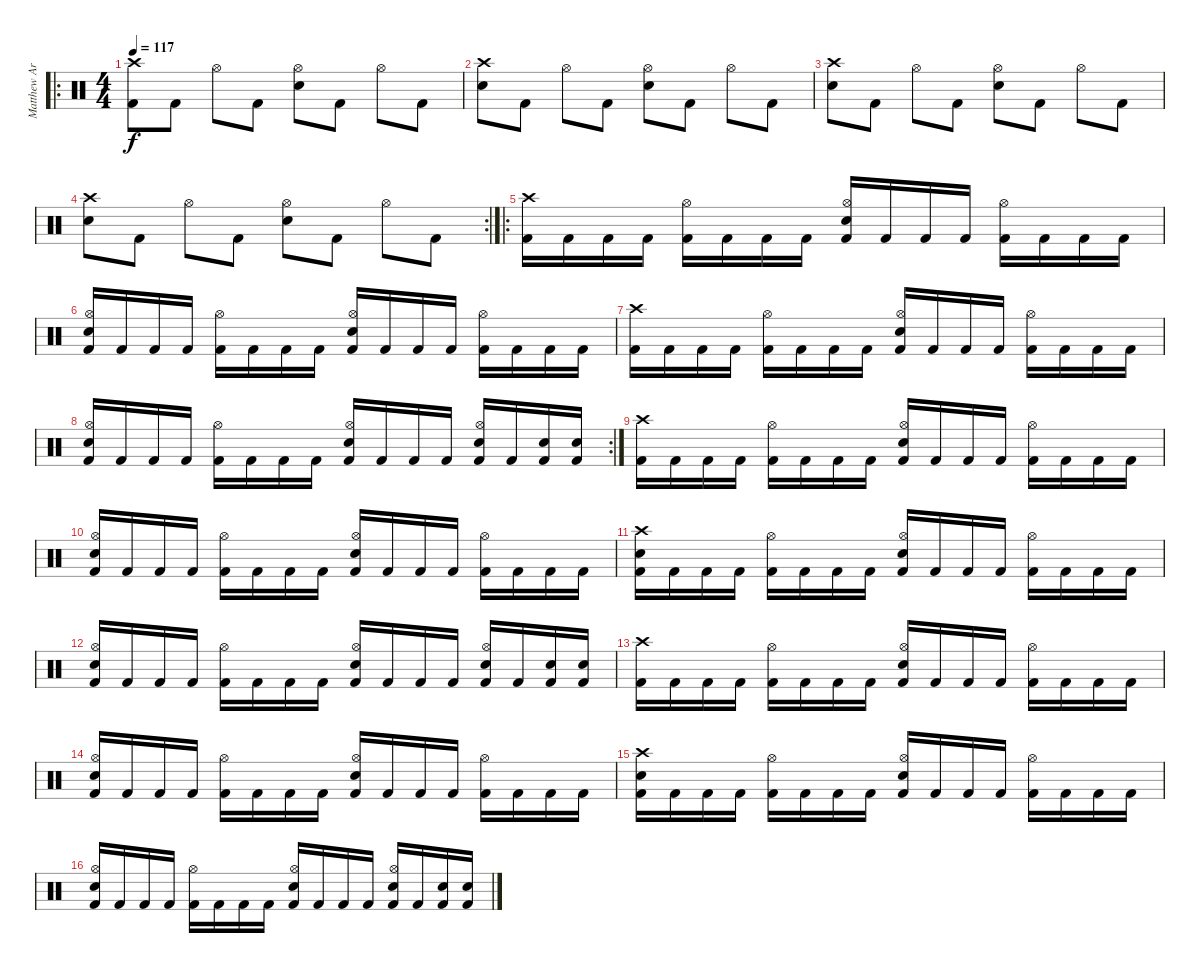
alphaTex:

\track ("Matthew Archer" "Matthew Ar") {instrument percussion}
\staff {score}
\articulation defaults
\ro
\ts (4 4)
\tempo 117
\clef neutral
\ks c
("Crash high (hit)" "Kick (hit) 2").8{dy f} "Kick (hit) 2".8 "Hi-Hat (open)".8 "Kick (hit) 2".8 ("Hi-Hat (open)" "Snare (hit) 2").8 "Kick (hit) 2".8 "Hi-Hat (open)".8 "Kick (hit) 2".8 |
("Crash high (hit)" "Snare (hit) 2").8 "Kick (hit) 2".8 "Hi-Hat (open)".8 "Kick (hit) 2".8 ("Hi-Hat (open)" "Snare (hit) 2").8 "Kick (hit) 2".8 "Hi-Hat (open)".8 "Kick (hit) 2".8 |
("Crash high (hit)" "Snare (hit) 2").8 "Kick (hit) 2".8 "Hi-Hat (open)".8 "Kick (hit) 2".8 ("Hi-Hat (open)" "Snare (hit) 2").8 "Kick (hit) 2".8 "Hi-Hat (open)".8 "Kick (hit) 2".8 |
\rc 2
("Crash high (hit)" "Snare (hit) 2").8 "Kick (hit) 2".8 "Hi-Hat (open)".8 "Kick (hit) 2".8 ("Hi-Hat (open)" "Snare (hit) 2").8 "Kick (hit) 2".8 "Hi-Hat (open)".8 "Kick (hit) 2".8 |
\ro
("Crash high (hit)" "Kick (hit) 2").16 "Kick (hit) 2".16 "Kick (hit) 2".16 "Kick (hit) 2".16 ("Hi-Hat (open)" "Kick (hit) 2").16 "Kick (hit) 2".16 "Kick (hit) 2".16 "Kick (hit) 2".16 ("Hi-Hat (open)" "Snare (hit) 2" "Kick (hit) 2").16 "Kick (hit) 2".16 "Kick (hit) 2".16 "Kick (hit) 2".16 ("Hi-Hat (open)" "Kick (hit) 2").16 "Kick (hit) 2".16 "Kick (hit) 2".16 "Kick (hit) 2".16 |
("Hi-Hat (open)" "Snare (hit) 2" "Kick (hit) 2").16 "Kick (hit) 2".16 "Kick (hit) 2".16 "Kick (hit) 2".16 ("Hi-Hat (open)" "Kick (hit) 2").16 "Kick (hit) 2".16 "Kick (hit) 2".16 "Kick (hit) 2".16 ("Hi-Hat (open)" "Snare (hit) 2" "Kick (hit) 2").16 "Kick (hit) 2".16 "Kick (hit) 2".16 "Kick (hit) 2".16 ("Hi-Hat (open)" "Kick (hit) 2").16 "Kick (hit) 2".16 "Kick (hit) 2".16 "Kick (hit) 2".16 |
("Crash high (hit)" "Kick (hit) 2").16 "Kick (hit) 2".16 "Kick (hit) 2".16 "Kick (hit) 2".16 ("Hi-Hat (open)" "Kick (hit) 2").16 "Kick (hit) 2".16 "Kick (hit) 2".16 "Kick (hit) 2".16 ("Hi-Hat (open)" "Snare (hit) 2" "Kick (hit) 2").16 "Kick (hit) 2".16 "Kick (hit) 2".16 "Kick (hit) 2".16 ("Hi-Hat (open)" "Kick (hit) 2").16 "Kick (hit) 2".16 "Kick (hit) 2".16 "Kick (hit) 2".16 |
\rc 2
("Snare (hit) 2" "Hi-Hat (open)" "Kick (hit) 2").16 "Kick (hit) 2".16 "Kick (hit) 2".16 "Kick (hit) 2".16 ("Hi-Hat (open)" "Kick (hit) 2").16 "Kick (hit) 2".16 "Kick (hit) 2".16 "Kick (hit) 2".16 ("Hi-Hat (open)" "Snare (hit) 2" "Kick (hit) 2").16 "Kick (hit) 2".16 "Kick (hit) 2".16 "Kick (hit) 2".16 ("Hi-Hat (open)" "Snare (hit) 2" "Kick (hit) 2").16 "Kick (hit) 2".16 ("Snare (hit) 2" "Kick (hit) 2").16 ("Snare (hit) 2" "Kick (hit) 2").16 |
("Crash high (hit)" "Kick (hit) 2").16 "Kick (hit) 2".16 "Kick (hit) 2".16 "Kick (hit) 2".16 ("Hi-Hat (open)" "Kick (hit) 2").16 "Kick (hit) 2".16 "Kick (hit) 2".16 "Kick (hit) 2".16 ("Hi-Hat (open)" "Snare (hit) 2" "Kick (hit) 2").16 "Kick (hit) 2".16 "Kick (hit) 2".16 "Kick (hit) 2".16 ("Hi-Hat (open)" "Kick (hit) 2").16 "Kick (hit) 2".16 "Kick (hit) 2".16 "Kick (hit) 2".16 |
("Hi-Hat (open)" "Snare (hit) 2" "Kick (hit) 2").16 "Kick (hit) 2".16 "Kick (hit) 2".16 "Kick (hit) 2".16 ("Hi-Hat (open)" "Kick (hit) 2").16 "Kick (hit) 2".16 "Kick (hit) 2".16 "Kick (hit) 2".16 ("Hi-Hat (open)" "Snare (hit) 2" "Kick (hit) 2").16 "Kick (hit) 2".16 "Kick (hit) 2".16 "Kick (hit) 2".16 ("Hi-Hat (open)" "Kick (hit) 2").16 "Kick (hit) 2".16 "Kick (hit) 2".16 "Kick (hit) 2".16 |
("Crash high (hit)" "Snare (hit) 2" "Kick (hit) 2").16 "Kick (hit) 2".16 "Kick (hit) 2".16 "Kick (hit) 2".16 ("Hi-Hat (open)" "Kick (hit) 2").16 "Kick (hit) 2".16 "Kick (hit) 2".16 "Kick (hit) 2".16 ("Hi-Hat (open)" "Snare (hit) 2" "Kick (hit) 2").16 "Kick (hit) 2".16 "Kick (hit) 2".16 "Kick (hit) 2".16 ("Hi-Hat (open)" "Kick (hit) 2").16 "Kick (hit) 2".16 "Kick (hit) 2".16 "Kick (hit) 2".16 |
("Snare (hit) 2" "Hi-Hat (open)" "Kick (hit) 2").16 "Kick (hit) 2".16 "Kick (hit) 2".16 "Kick (hit) 2".16 ("Hi-Hat (open)" "Kick (hit) 2").16 "Kick (hit) 2".16 "Kick (hit) 2".16 "Kick (hit) 2".16 ("Hi-Hat (open)" "Snare (hit) 2" "Kick (hit) 2").16 "Kick (hit) 2".16 "Kick (hit) 2".16 "Kick (hit) 2".16 ("Hi-Hat (open)" "Snare (hit) 2" "Kick (hit) 2").16 "Kick (hit) 2".16 ("Snare (hit) 2" "Kick (hit) 2").16 ("Snare (hit) 2" "Kick (hit) 2").16 |
("Crash high (hit)" "Kick (hit) 2").16 "Kick (hit) 2".16 "Kick (hit) 2".16 "Kick (hit) 2".16 ("Hi-Hat (open)" "Kick (hit) 2").16 "Kick (hit) 2".16 "Kick (hit) 2".16 "Kick (hit) 2".16 ("Hi-Hat (open)" "Snare (hit) 2" "Kick (hit) 2").16 "Kick (hit) 2".16 "Kick (hit) 2".16 "Kick (hit) 2".16 ("Hi-Hat (open)" "Kick (hit) 2").16 "Kick (hit) 2".16 "Kick (hit) 2".16 "Kick (hit) 2".16 |
("Hi-Hat (open)" "Snare (hit) 2" "Kick (hit) 2").16 "Kick (hit) 2".16 "Kick (hit) 2".16 "Kick (hit) 2".16 ("Hi-Hat (open)" "Kick (hit) 2").16 "Kick (hit) 2".16 "Kick (hit) 2".16 "Kick (hit) 2".16 ("Hi-Hat (open)" "Snare (hit) 2" "Kick (hit) 2").16 "Kick (hit) 2".16 "Kick (hit) 2".16 "Kick (hit) 2".16 ("Hi-Hat (open)" "Kick (hit) 2").16 "Kick (hit) 2".16 "Kick (hit) 2".16 "Kick (hit) 2".16 |
("Crash high (hit)" "Snare (hit) 2" "Kick (hit) 2").16 "Kick (hit) 2".16 "Kick (hit) 2".16 "Kick (hit) 2".16 ("Hi-Hat (open)" "Kick (hit) 2").16 "Kick (hit) 2".16 "Kick (hit) 2".16 "Kick (hit) 2".16 ("Hi-Hat (open)" "Snare (hit) 2" "Kick (hit) 2").16 "Kick (hit) 2".16 "Kick (hit) 2".16 "Kick (hit) 2".16 ("Hi-Hat (open)" "Kick (hit) 2").16 "Kick (hit) 2".16 "Kick (hit) 2".16 "Kick (hit) 2".16 |
("Snare (hit) 2" "Hi-Hat (open)" "Kick (hit) 2").16 "Kick (hit) 2".16 "Kick (hit) 2".16 "Kick (hit) 2".16 ("Hi-Hat (open)" "Kick (hit) 2").16 "Kick (hit) 2".16 "Kick (hit) 2".16 "Kick (hit) 2".16 ("Hi-Hat (open)" "Snare (hit) 2" "Kick (hit) 2").16 "Kick (hit) 2".16 "Kick (hit) 2".16 "Kick (hit) 2".16 ("Hi-Hat (open)" "Snare (hit) 2" "Kick (hit) 2").16 "Kick (hit) 2".16 ("Snare (hit) 2" "Kick (hit) 2").16 ("Snare (hit) 2" "Kick (hit) 2").16
